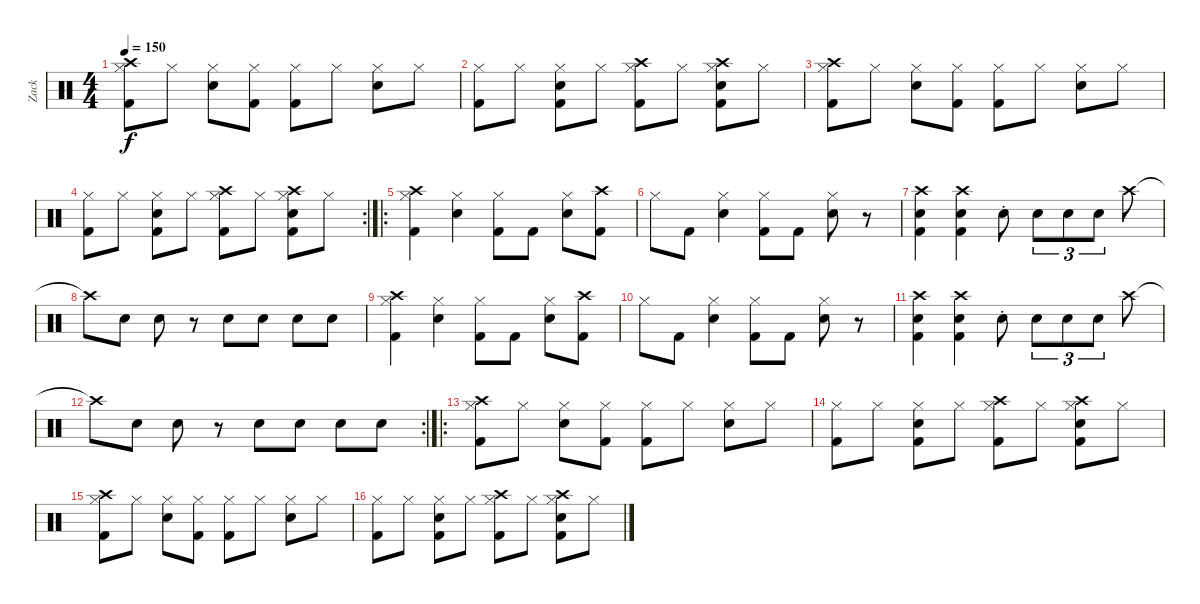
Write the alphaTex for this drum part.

\track ("Zack" "Zack") {instrument percussion}
\staff {score}
\articulation defaults
\ts (4 4)
\tempo 150
\clef neutral
\ks c
("Hi-Hat (closed)" "Crash high (hit)" "Kick (hit) 2").8{dy f} "Hi-Hat (closed)".8 ("Hi-Hat (closed)" "Snare (hit) 2").8 ("Hi-Hat (closed)" "Kick (hit) 2").8 ("Hi-Hat (closed)" "Kick (hit) 2").8 "Hi-Hat (closed)".8 ("Hi-Hat (closed)" "Snare (hit) 2").8 "Hi-Hat (closed)".8 |
("Hi-Hat (closed)" "Kick (hit) 2").8 "Hi-Hat (closed)".8 ("Hi-Hat (closed)" "Snare (hit) 2" "Kick (hit) 2").8 "Hi-Hat (closed)".8 ("Hi-Hat (closed)" "Crash high (hit)" "Kick (hit) 2").8 "Hi-Hat (closed)".8 ("Hi-Hat (closed)" "Crash high (hit)" "Snare (hit) 2" "Kick (hit) 2").8 "Hi-Hat (closed)".8 |
("Hi-Hat (closed)" "Crash high (hit)" "Kick (hit) 2").8 "Hi-Hat (closed)".8 ("Hi-Hat (closed)" "Snare (hit) 2").8 ("Hi-Hat (closed)" "Kick (hit) 2").8 ("Hi-Hat (closed)" "Kick (hit) 2").8 "Hi-Hat (closed)".8 ("Hi-Hat (closed)" "Snare (hit) 2").8 "Hi-Hat (closed)".8 |
\rc 2
("Hi-Hat (closed)" "Kick (hit) 2").8 "Hi-Hat (closed)".8 ("Hi-Hat (closed)" "Snare (hit) 2" "Kick (hit) 2").8 "Hi-Hat (closed)".8 ("Hi-Hat (closed)" "Crash high (hit)" "Kick (hit) 2").8 "Hi-Hat (closed)".8 ("Hi-Hat (closed)" "Crash high (hit)" "Snare (hit) 2" "Kick (hit) 2").8 "Hi-Hat (closed)".8 |
\ro
("Hi-Hat (closed)" "Crash high (hit)" "Kick (hit) 2").4 ("Hi-Hat (closed)" "Snare (hit) 2").4 ("Hi-Hat (closed)" "Kick (hit) 2").8 "Kick (hit) 2".8 ("Hi-Hat (closed)" "Snare (hit) 2").8 ("Crash high (hit)" "Kick (hit) 2").8 |
"Hi-Hat (closed)".8 "Kick (hit) 2".8 ("Hi-Hat (closed)" "Snare (hit) 2").4 ("Hi-Hat (closed)" "Kick (hit) 2").8 "Kick (hit) 2".8 ("Hi-Hat (closed)" "Snare (hit) 2").8 r.8 |
("Crash high (hit)" "Snare (hit) 2" "Kick (hit) 2").4 ("Crash high (hit)" "Snare (hit) 2" "Kick (hit) 2").4 "Snare (hit) 2"{st}.8 "Snare (hit) 2".8{tu (3 2)} "Snare (hit) 2".8{tu (3 2)} "Snare (hit) 2".8{tu (3 2)} "Crash high (hit)".8 |
"Crash high (hit)"{t}.8 "Snare (hit) 2".8 "Snare (hit) 2".8 r.8 "Snare (hit) 2".8 "Snare (hit) 2".8 "Snare (hit) 2".8 "Snare (hit) 2".8 |
("Hi-Hat (closed)" "Crash high (hit)" "Kick (hit) 2").4 ("Hi-Hat (closed)" "Snare (hit) 2").4 ("Hi-Hat (closed)" "Kick (hit) 2").8 "Kick (hit) 2".8 ("Hi-Hat (closed)" "Snare (hit) 2").8 ("Crash high (hit)" "Kick (hit) 2").8 |
"Hi-Hat (closed)".8 "Kick (hit) 2".8 ("Hi-Hat (closed)" "Snare (hit) 2").4 ("Hi-Hat (closed)" "Kick (hit) 2").8 "Kick (hit) 2".8 ("Hi-Hat (closed)" "Snare (hit) 2").8 r.8 |
("Crash high (hit)" "Snare (hit) 2" "Kick (hit) 2").4 ("Crash high (hit)" "Snare (hit) 2" "Kick (hit) 2").4 "Snare (hit) 2"{st}.8 "Snare (hit) 2".8{tu (3 2)} "Snare (hit) 2".8{tu (3 2)} "Snare (hit) 2".8{tu (3 2)} "Crash high (hit)".8 |
\rc 2 "Crash high (hit)"{t}.8 "Snare (hit) 2".8 "Snare (hit) 2".8
r.8 "Snare (hit) 2".8 "Snare (hit) 2".8 "Snare (hit) 2".8 "Snare (hit) 2".8 |
\ro
("Hi-Hat (closed)" "Crash high (hit)" "Kick (hit) 2").8 "Hi-Hat (closed)".8 ("Hi-Hat (closed)" "Snare (hit) 2").8 ("Hi-Hat (closed)" "Kick (hit) 2").8 ("Hi-Hat (closed)" "Kick (hit) 2").8 "Hi-Hat (closed)".8 ("Hi-Hat (closed)" "Snare (hit) 2").8 "Hi-Hat (closed)".8 |
("Hi-Hat (closed)" "Kick (hit) 2").8 "Hi-Hat (closed)".8 ("Hi-Hat (closed)" "Snare (hit) 2" "Kick (hit) 2").8 "Hi-Hat (closed)".8 ("Hi-Hat (closed)" "Crash high (hit)" "Kick (hit) 2").8 "Hi-Hat (closed)".8 ("Hi-Hat (closed)" "Crash high (hit)" "Snare (hit) 2" "Kick (hit) 2").8 "Hi-Hat (closed)".8 |
("Hi-Hat (closed)" "Crash high (hit)" "Kick (hit) 2").8 "Hi-Hat (closed)".8 ("Hi-Hat (closed)" "Snare (hit) 2").8 ("Hi-Hat (closed)" "Kick (hit) 2").8 ("Hi-Hat (closed)" "Kick (hit) 2").8 "Hi-Hat (closed)".8 ("Hi-Hat (closed)" "Snare (hit) 2").8 "Hi-Hat (closed)".8 |
("Hi-Hat (closed)" "Kick (hit) 2").8 "Hi-Hat (closed)".8 ("Hi-Hat (closed)" "Snare (hit) 2" "Kick (hit) 2").8 "Hi-Hat (closed)".8 ("Hi-Hat (closed)" "Crash high (hit)" "Kick (hit) 2").8 "Hi-Hat (closed)".8 ("Hi-Hat (closed)" "Crash high (hit)" "Snare (hit) 2" "Kick (hit) 2").8 "Hi-Hat (closed)".8
